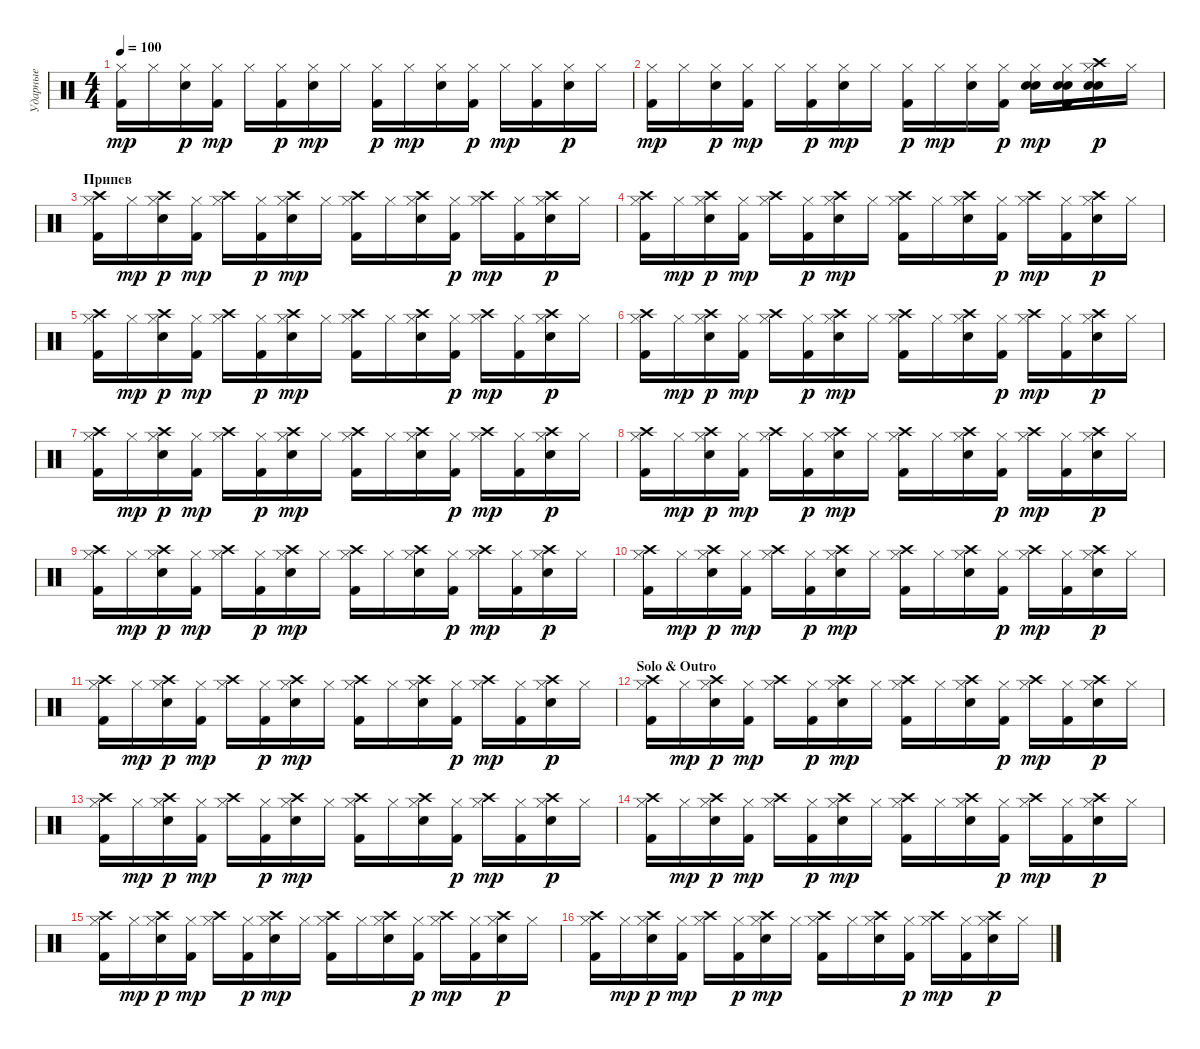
\track ("Ударные" "Ударные") {instrument percussion}
\staff {score}
\articulation defaults
\ts (4 4)
\tempo 100
\clef neutral
\ks c
("Hi-Hat (closed)" "Kick (hit) 2").16{dy mp} "Hi-Hat (closed)".16 ("Hi-Hat (closed)" "Electric Snare (hit)").16{dy p} ("Hi-Hat (closed)" "Kick (hit) 2").16{dy mp} "Hi-Hat (closed)".16 ("Hi-Hat (closed)" "Kick (hit) 2").16{dy p} ("Hi-Hat (closed)" "Electric Snare (hit)").16{dy mp} "Hi-Hat (closed)".16 ("Hi-Hat (closed)" "Kick (hit) 2").16{dy p} "Hi-Hat (closed)".16{dy mp} ("Hi-Hat (closed)" "Electric Snare (hit)").16 ("Hi-Hat (closed)" "Kick (hit) 2").16{dy p} "Hi-Hat (closed)".16{dy mp} ("Hi-Hat (closed)" "Kick (hit) 2").16 ("Hi-Hat (closed)" "Electric Snare (hit)").16{dy p} "Hi-Hat (closed)".16 |
("Hi-Hat (closed)" "Kick (hit) 2").16{dy mp} "Hi-Hat (closed)".16 ("Hi-Hat (closed)" "Electric Snare (hit)").16{dy p} ("Hi-Hat (closed)" "Kick (hit) 2").16{dy mp} "Hi-Hat (closed)".16 ("Hi-Hat (closed)" "Kick (hit) 2").16{dy p} ("Hi-Hat (closed)" "Electric Snare (hit)").16{dy mp} "Hi-Hat (closed)".16 ("Hi-Hat (closed)" "Kick (hit) 2").16{dy p} "Hi-Hat (closed)".16{dy mp} ("Hi-Hat (closed)" "Electric Snare (hit)").16 ("Hi-Hat (closed)" "Kick (hit) 2").16{dy p} ("Hi-Hat (closed)" "Electric Snare (hit)" "Electric Snare (hit)").16{dy mp} ("Hi-Hat (closed)" "Electric Snare (hit)" "Kick (hit) 2" "Electric Snare (hit)").16 ("Hi-Hat (closed)" "Electric Snare (hit)" "Crash high (hit)" "Electric Snare (hit)").16{dy p} "Hi-Hat (closed)".16 |
\section ("" "Припев")
("Hi-Hat (closed)" "Kick (hit) 2" "Crash high (hit)").16 "Hi-Hat (closed)".16{dy mp} ("Hi-Hat (closed)" "Electric Snare (hit)" "Crash high (hit)").16{dy p} ("Hi-Hat (closed)" "Kick (hit) 2").16{dy mp} ("Hi-Hat (closed)" "Crash high (hit)").16 ("Hi-Hat (closed)" "Kick (hit) 2").16{dy p} ("Hi-Hat (closed)" "Electric Snare (hit)" "Crash high (hit)").16{dy mp} "Hi-Hat (closed)".16 ("Hi-Hat (closed)" "Kick (hit) 2" "Crash high (hit)").16 "Hi-Hat (closed)".16 ("Hi-Hat (closed)" "Electric Snare (hit)" "Crash high (hit)").16 ("Hi-Hat (closed)" "Kick (hit) 2").16{dy p} ("Hi-Hat (closed)" "Crash high (hit)").16{dy mp} ("Hi-Hat (closed)" "Kick (hit) 2").16 ("Hi-Hat (closed)" "Electric Snare (hit)" "Crash high (hit)").16{dy p} "Hi-Hat (closed)".16 |
("Hi-Hat (closed)" "Kick (hit) 2" "Crash high (hit)").16 "Hi-Hat (closed)".16{dy mp} ("Hi-Hat (closed)" "Electric Snare (hit)" "Crash high (hit)").16{dy p} ("Hi-Hat (closed)" "Kick (hit) 2").16{dy mp} ("Hi-Hat (closed)" "Crash high (hit)").16 ("Hi-Hat (closed)" "Kick (hit) 2").16{dy p} ("Hi-Hat (closed)" "Electric Snare (hit)" "Crash high (hit)").16{dy mp} "Hi-Hat (closed)".16 ("Hi-Hat (closed)" "Kick (hit) 2" "Crash high (hit)").16 "Hi-Hat (closed)".16 ("Hi-Hat (closed)" "Electric Snare (hit)" "Crash high (hit)").16 ("Hi-Hat (closed)" "Kick (hit) 2").16{dy p} ("Hi-Hat (closed)" "Crash high (hit)").16{dy mp} ("Hi-Hat (closed)" "Kick (hit) 2").16 ("Hi-Hat (closed)" "Electric Snare (hit)" "Crash high (hit)").16{dy p} "Hi-Hat (closed)".16 |
("Hi-Hat (closed)" "Kick (hit) 2" "Crash high (hit)").16 "Hi-Hat (closed)".16{dy mp} ("Hi-Hat (closed)" "Electric Snare (hit)" "Crash high (hit)").16{dy p} ("Hi-Hat (closed)" "Kick (hit) 2").16{dy mp} ("Hi-Hat (closed)" "Crash high (hit)").16 ("Hi-Hat (closed)" "Kick (hit) 2").16{dy p} ("Hi-Hat (closed)" "Electric Snare (hit)" "Crash high (hit)").16{dy mp} "Hi-Hat (closed)".16 ("Hi-Hat (closed)" "Kick (hit) 2" "Crash high (hit)").16 "Hi-Hat (closed)".16 ("Hi-Hat (closed)" "Electric Snare (hit)" "Crash high (hit)").16 ("Hi-Hat (closed)" "Kick (hit) 2").16{dy p} ("Hi-Hat (closed)" "Crash high (hit)").16{dy mp} ("Hi-Hat (closed)" "Kick (hit) 2").16 ("Hi-Hat (closed)" "Electric Snare (hit)" "Crash high (hit)").16{dy p} "Hi-Hat (closed)".16 |
("Hi-Hat (closed)" "Kick (hit) 2" "Crash high (hit)").16 "Hi-Hat (closed)".16{dy mp} ("Hi-Hat (closed)" "Electric Snare (hit)" "Crash high (hit)").16{dy p} ("Hi-Hat (closed)" "Kick (hit) 2").16{dy mp} ("Hi-Hat (closed)" "Crash high (hit)").16 ("Hi-Hat (closed)" "Kick (hit) 2").16{dy p} ("Hi-Hat (closed)" "Electric Snare (hit)" "Crash high (hit)").16{dy mp} "Hi-Hat (closed)".16 ("Hi-Hat (closed)" "Kick (hit) 2" "Crash high (hit)").16 "Hi-Hat (closed)".16 ("Hi-Hat (closed)" "Electric Snare (hit)" "Crash high (hit)").16 ("Hi-Hat (closed)" "Kick (hit) 2").16{dy p} ("Hi-Hat (closed)" "Crash high (hit)").16{dy mp} ("Hi-Hat (closed)" "Kick (hit) 2").16 ("Hi-Hat (closed)" "Electric Snare (hit)" "Crash high (hit)").16{dy p} "Hi-Hat (closed)".16 |
("Hi-Hat (closed)" "Kick (hit) 2" "Crash high (hit)").16 "Hi-Hat (closed)".16{dy mp} ("Hi-Hat (closed)" "Electric Snare (hit)" "Crash high (hit)").16{dy p} ("Hi-Hat (closed)" "Kick (hit) 2").16{dy mp} ("Hi-Hat (closed)" "Crash high (hit)").16 ("Hi-Hat (closed)" "Kick (hit) 2").16{dy p} ("Hi-Hat (closed)" "Electric Snare (hit)" "Crash high (hit)").16{dy mp} "Hi-Hat (closed)".16 ("Hi-Hat (closed)" "Kick (hit) 2" "Crash high (hit)").16 "Hi-Hat (closed)".16 ("Hi-Hat (closed)" "Electric Snare (hit)" "Crash high (hit)").16 ("Hi-Hat (closed)" "Kick (hit) 2").16{dy p} ("Hi-Hat (closed)" "Crash high (hit)").16{dy mp} ("Hi-Hat (closed)" "Kick (hit) 2").16 ("Hi-Hat (closed)" "Electric Snare (hit)" "Crash high (hit)").16{dy p} "Hi-Hat (closed)".16 |
("Hi-Hat (closed)" "Kick (hit) 2" "Crash high (hit)").16 "Hi-Hat (closed)".16{dy mp} ("Hi-Hat (closed)" "Electric Snare (hit)" "Crash high (hit)").16{dy p} ("Hi-Hat (closed)" "Kick (hit) 2").16{dy mp} ("Hi-Hat (closed)" "Crash high (hit)").16 ("Hi-Hat (closed)" "Kick (hit) 2").16{dy p} ("Hi-Hat (closed)" "Electric Snare (hit)" "Crash high (hit)").16{dy mp} "Hi-Hat (closed)".16 ("Hi-Hat (closed)" "Kick (hit) 2" "Crash high (hit)").16 "Hi-Hat (closed)".16 ("Hi-Hat (closed)" "Electric Snare (hit)" "Crash high (hit)").16 ("Hi-Hat (closed)" "Kick (hit) 2").16{dy p} ("Hi-Hat (closed)" "Crash high (hit)").16{dy mp} ("Hi-Hat (closed)" "Kick (hit) 2").16 ("Hi-Hat (closed)" "Electric Snare (hit)" "Crash high (hit)").16{dy p} "Hi-Hat (closed)".16 |
("Hi-Hat (closed)" "Kick (hit) 2" "Crash high (hit)").16 "Hi-Hat (closed)".16{dy mp} ("Hi-Hat (closed)" "Electric Snare (hit)" "Crash high (hit)").16{dy p} ("Hi-Hat (closed)" "Kick (hit) 2").16{dy mp} ("Hi-Hat (closed)" "Crash high (hit)").16 ("Hi-Hat (closed)" "Kick (hit) 2").16{dy p} ("Hi-Hat (closed)" "Electric Snare (hit)" "Crash high (hit)").16{dy mp} "Hi-Hat (closed)".16 ("Hi-Hat (closed)" "Kick (hit) 2" "Crash high (hit)").16 "Hi-Hat (closed)".16 ("Hi-Hat (closed)" "Electric Snare (hit)" "Crash high (hit)").16 ("Hi-Hat (closed)" "Kick (hit) 2").16{dy p} ("Hi-Hat (closed)" "Crash high (hit)").16{dy mp} ("Hi-Hat (closed)" "Kick (hit) 2").16 ("Hi-Hat (closed)" "Electric Snare (hit)" "Crash high (hit)").16{dy p} "Hi-Hat (closed)".16 |
("Hi-Hat (closed)" "Kick (hit) 2" "Crash high (hit)").16 "Hi-Hat (closed)".16{dy mp} ("Hi-Hat (closed)" "Electric Snare (hit)" "Crash high (hit)").16{dy p} ("Hi-Hat (closed)" "Kick (hit) 2").16{dy mp} ("Hi-Hat (closed)" "Crash high (hit)").16 ("Hi-Hat (closed)" "Kick (hit) 2").16{dy p} ("Hi-Hat (closed)" "Electric Snare (hit)" "Crash high (hit)").16{dy mp} "Hi-Hat (closed)".16 ("Hi-Hat (closed)" "Kick (hit) 2" "Crash high (hit)").16 "Hi-Hat (closed)".16 ("Hi-Hat (closed)" "Electric Snare (hit)" "Crash high (hit)").16 ("Hi-Hat (closed)" "Kick (hit) 2").16{dy p} ("Hi-Hat (closed)" "Crash high (hit)").16{dy mp} ("Hi-Hat (closed)" "Kick (hit) 2").16 ("Hi-Hat (closed)" "Electric Snare (hit)" "Crash high (hit)").16{dy p} "Hi-Hat (closed)".16 |
("Hi-Hat (closed)" "Kick (hit) 2" "Crash high (hit)").16 "Hi-Hat (closed)".16{dy mp} ("Hi-Hat (closed)" "Electric Snare (hit)" "Crash high (hit)").16{dy p} ("Hi-Hat (closed)" "Kick (hit) 2").16{dy mp} ("Hi-Hat (closed)" "Crash high (hit)").16 ("Hi-Hat (closed)" "Kick (hit) 2").16{dy p} ("Hi-Hat (closed)" "Electric Snare (hit)" "Crash high (hit)").16{dy mp} "Hi-Hat (closed)".16 ("Hi-Hat (closed)" "Kick (hit) 2" "Crash high (hit)").16 "Hi-Hat (closed)".16 ("Hi-Hat (closed)" "Electric Snare (hit)" "Crash high (hit)").16 ("Hi-Hat (closed)" "Kick (hit) 2").16{dy p} ("Hi-Hat (closed)" "Crash high (hit)").16{dy mp} ("Hi-Hat (closed)" "Kick (hit) 2").16 ("Hi-Hat (closed)" "Electric Snare (hit)" "Crash high (hit)").16{dy p} "Hi-Hat (closed)".16 |
\section ("" "Solo & Outro")
("Hi-Hat (closed)" "Kick (hit) 2" "Crash high (hit)").16 "Hi-Hat (closed)".16{dy mp} ("Hi-Hat (closed)" "Electric Snare (hit)" "Crash high (hit)").16{dy p} ("Hi-Hat (closed)" "Kick (hit) 2").16{dy mp} ("Hi-Hat (closed)" "Crash high (hit)").16 ("Hi-Hat (closed)" "Kick (hit) 2").16{dy p} ("Hi-Hat (closed)" "Electric Snare (hit)" "Crash high (hit)").16{dy mp} "Hi-Hat (closed)".16 ("Hi-Hat (closed)" "Kick (hit) 2" "Crash high (hit)").16 "Hi-Hat (closed)".16 ("Hi-Hat (closed)" "Electric Snare (hit)" "Crash high (hit)").16 ("Hi-Hat (closed)" "Kick (hit) 2").16{dy p} ("Hi-Hat (closed)" "Crash high (hit)").16{dy mp} ("Hi-Hat (closed)" "Kick (hit) 2").16 ("Hi-Hat (closed)" "Electric Snare (hit)" "Crash high (hit)").16{dy p} "Hi-Hat (closed)".16 |
("Hi-Hat (closed)" "Kick (hit) 2" "Crash high (hit)").16 "Hi-Hat (closed)".16{dy mp} ("Hi-Hat (closed)" "Electric Snare (hit)" "Crash high (hit)").16{dy p} ("Hi-Hat (closed)" "Kick (hit) 2").16{dy mp} ("Hi-Hat (closed)" "Crash high (hit)").16 ("Hi-Hat (closed)" "Kick (hit) 2").16{dy p} ("Hi-Hat (closed)" "Electric Snare (hit)" "Crash high (hit)").16{dy mp} "Hi-Hat (closed)".16 ("Hi-Hat (closed)" "Kick (hit) 2" "Crash high (hit)").16 "Hi-Hat (closed)".16 ("Hi-Hat (closed)" "Electric Snare (hit)" "Crash high (hit)").16 ("Hi-Hat (closed)" "Kick (hit) 2").16{dy p} ("Hi-Hat (closed)" "Crash high (hit)").16{dy mp} ("Hi-Hat (closed)" "Kick (hit) 2").16 ("Hi-Hat (closed)" "Electric Snare (hit)" "Crash high (hit)").16{dy p} "Hi-Hat (closed)".16 |
("Hi-Hat (closed)" "Kick (hit) 2" "Crash high (hit)").16 "Hi-Hat (closed)".16{dy mp} ("Hi-Hat (closed)" "Electric Snare (hit)" "Crash high (hit)").16{dy p} ("Hi-Hat (closed)" "Kick (hit) 2").16{dy mp} ("Hi-Hat (closed)" "Crash high (hit)").16 ("Hi-Hat (closed)" "Kick (hit) 2").16{dy p} ("Hi-Hat (closed)" "Electric Snare (hit)" "Crash high (hit)").16{dy mp} "Hi-Hat (closed)".16 ("Hi-Hat (closed)" "Kick (hit) 2" "Crash high (hit)").16 "Hi-Hat (closed)".16 ("Hi-Hat (closed)" "Electric Snare (hit)" "Crash high (hit)").16 ("Hi-Hat (closed)" "Kick (hit) 2").16{dy p} ("Hi-Hat (closed)" "Crash high (hit)").16{dy mp} ("Hi-Hat (closed)" "Kick (hit) 2").16 ("Hi-Hat (closed)" "Electric Snare (hit)" "Crash high (hit)").16{dy p} "Hi-Hat (closed)".16 |
("Hi-Hat (closed)" "Kick (hit) 2" "Crash high (hit)").16 "Hi-Hat (closed)".16{dy mp} ("Hi-Hat (closed)" "Electric Snare (hit)" "Crash high (hit)").16{dy p} ("Hi-Hat (closed)" "Kick (hit) 2").16{dy mp} ("Hi-Hat (closed)" "Crash high (hit)").16 ("Hi-Hat (closed)" "Kick (hit) 2").16{dy p} ("Hi-Hat (closed)" "Electric Snare (hit)" "Crash high (hit)").16{dy mp} "Hi-Hat (closed)".16 ("Hi-Hat (closed)" "Kick (hit) 2" "Crash high (hit)").16 "Hi-Hat (closed)".16 ("Hi-Hat (closed)" "Electric Snare (hit)" "Crash high (hit)").16 ("Hi-Hat (closed)" "Kick (hit) 2").16{dy p} ("Hi-Hat (closed)" "Crash high (hit)").16{dy mp} ("Hi-Hat (closed)" "Kick (hit) 2").16 ("Hi-Hat (closed)" "Electric Snare (hit)" "Crash high (hit)").16{dy p} "Hi-Hat (closed)".16 |
("Hi-Hat (closed)" "Kick (hit) 2" "Crash high (hit)").16 "Hi-Hat (closed)".16{dy mp} ("Hi-Hat (closed)" "Electric Snare (hit)" "Crash high (hit)").16{dy p} ("Hi-Hat (closed)" "Kick (hit) 2").16{dy mp} ("Hi-Hat (closed)" "Crash high (hit)").16 ("Hi-Hat (closed)" "Kick (hit) 2").16{dy p} ("Hi-Hat (closed)" "Electric Snare (hit)" "Crash high (hit)").16{dy mp} "Hi-Hat (closed)".16 ("Hi-Hat (closed)" "Kick (hit) 2" "Crash high (hit)").16 "Hi-Hat (closed)".16 ("Hi-Hat (closed)" "Electric Snare (hit)" "Crash high (hit)").16 ("Hi-Hat (closed)" "Kick (hit) 2").16{dy p} ("Hi-Hat (closed)" "Crash high (hit)").16{dy mp} ("Hi-Hat (closed)" "Kick (hit) 2").16 ("Hi-Hat (closed)" "Electric Snare (hit)" "Crash high (hit)").16{dy p} "Hi-Hat (closed)".16
